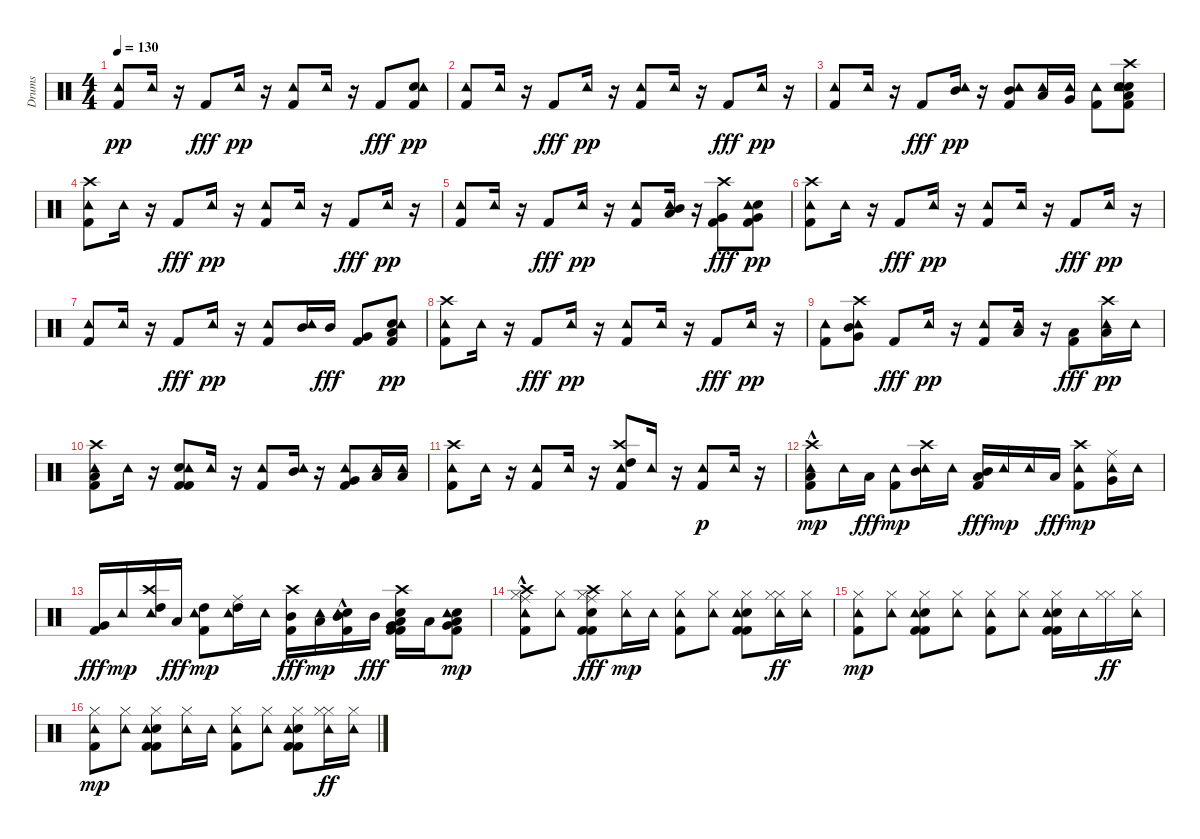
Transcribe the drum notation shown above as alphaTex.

\track ("Drums" "Drums") {instrument percussion}
\staff {score}
\articulation defaults
\ts (4 4)
\tempo 130
\clef neutral
\ks c
("Kick (hit) 2" "Tambourine (hit)").8{dy pp} "Tambourine (hit)".16 r.16 "Kick (hit) 2".8{dy fff} "Tambourine (hit)".16{dy pp} r.16 ("Kick (hit) 2" "Tambourine (hit)").8 "Tambourine (hit)".16 r.16 "Kick (hit) 2".8{dy fff} ("Snare (hit) 2" "Kick (hit) 2" "Tambourine (hit)").8{dy pp} |
("Kick (hit) 2" "Tambourine (hit)").8 "Tambourine (hit)".16 r.16 "Kick (hit) 2".8{dy fff} "Tambourine (hit)".16{dy pp} r.16 ("Kick (hit) 2" "Tambourine (hit)").8 "Tambourine (hit)".16 r.16 "Kick (hit) 2".8{dy fff} "Tambourine (hit)".16{dy pp} r.16 |
("Kick (hit) 2" "Tambourine (hit)").8 "Tambourine (hit)".16 r.16 "Kick (hit) 2".8{dy fff} ("Mid Tom (hit)" "Tambourine (hit)").16{dy pp} r.16 ("Kick (hit) 2" "Mid Tom (hit)" "Tambourine (hit)").8 ("Low Tom (hit)" "Tambourine (hit)").16 ("Very Low Tom (hit)" "Tambourine (hit)").16 ("Kick (hit) 2" "Tambourine (hit)").8 ("Snare (hit) 2" "Kick (hit) 2" "Low Floor Tom (hit)" "Electric Snare (hit)" "Crash high (hit)" "Tambourine (hit)").8 |
("Kick (hit) 2" "Crash high (hit)" "Tambourine (hit)").8 "Tambourine (hit)".16 r.16 "Kick (hit) 2".8{dy fff} "Tambourine (hit)".16{dy pp} r.16 ("Kick (hit) 2" "Tambourine (hit)").8 "Tambourine (hit)".16 r.16 "Kick (hit) 2".8{dy fff} "Tambourine (hit)".16{dy pp} r.16 |
("Kick (hit) 2" "Tambourine (hit)").8 "Tambourine (hit)".16 r.16 "Kick (hit) 2".8{dy fff} "Tambourine (hit)".16{dy pp} r.16 ("Kick (hit) 2" "Tambourine (hit)").8 ("Mid Tom (hit)" "Low Tom (hit)" "Tambourine (hit)").16 r.16 ("Kick (hit) 2" "Very Low Tom (hit)" "Crash high (hit)").8{dy fff} ("Snare (hit) 2" "Kick (hit) 2" "Very Low Tom (hit)" "Tambourine (hit)").8{dy pp} |
("Kick (hit) 2" "Crash high (hit)" "Tambourine (hit)").8 "Tambourine (hit)".16 r.16 "Kick (hit) 2".8{dy fff} "Tambourine (hit)".16{dy pp} r.16 ("Kick (hit) 2" "Tambourine (hit)").8 "Tambourine (hit)".16 r.16 "Kick (hit) 2".8{dy fff} "Tambourine (hit)".16{dy pp} r.16 |
("Kick (hit) 2" "Tambourine (hit)").8 "Tambourine (hit)".16 r.16 "Kick (hit) 2".8{dy fff} "Tambourine (hit)".16{dy pp} r.16 ("Kick (hit) 2" "Tambourine (hit)").8 ("Mid Tom (hit)" "Tambourine (hit)").16 "Mid Tom (hit)".16{dy fff} ("Kick (hit) 2" "Very Low Tom (hit)").8 ("Snare (hit) 2" "Kick (hit) 2" "Low Floor Tom (hit)" "Tambourine (hit)").8{dy pp} |
("Kick (hit) 2" "Crash high (hit)" "Tambourine (hit)").8 "Tambourine (hit)".16 r.16 "Kick (hit) 2".8{dy fff} "Tambourine (hit)".16{dy pp} r.16 ("Kick (hit) 2" "Tambourine (hit)").8 "Tambourine (hit)".16 r.16 "Kick (hit) 2".8{dy fff} "Tambourine (hit)".16{dy pp} r.16 |
("Kick (hit) 2" "Tambourine (hit)").8 ("Mid Tom (hit)" "Very Low Tom (hit)" "Crash high (hit)" "Tambourine (hit)").8 "Kick (hit) 2".8{dy fff} "Tambourine (hit)".16{dy pp} r.16 ("Kick (hit) 2" "Tambourine (hit)").8 ("Low Tom (hit)" "Tambourine (hit)").16 r.16 ("Kick (hit) 2" "Low Tom (hit)").8{dy fff} ("Low Floor Tom (hit)" "Crash high (hit)" "Tambourine (hit)").16{dy pp} "Tambourine (hit)".16 |
("Kick (hit) 2" "Low Floor Tom (hit)" "Crash high (hit)" "Tambourine (hit)").8 "Tambourine (hit)".16 r.16 ("Kick (hit) 2" "Snare (hit) 2" "Kick (hit) 2" "Tambourine (hit)").8 "Tambourine (hit)".16 r.16 ("Kick (hit) 2" "Tambourine (hit)").8 ("Mid Tom (hit)" "Tambourine (hit)").16 r.16 ("Kick (hit) 2" "Very Low Tom (hit)" "Tambourine (hit)").8 ("Low Tom (hit)" "Tambourine (hit)").16 ("Low Floor Tom (hit)" "Tambourine (hit)").16 |
("Kick (hit) 2" "Crash high (hit)" "Tambourine (hit)").8 "Tambourine (hit)".16 r.16 ("Kick (hit) 2" "Tambourine (hit)").8 "Tambourine (hit)".16 r.16 ("Kick (hit) 2" "High Tom (hit)" "Crash high (hit)" "Tambourine (hit)").8 "Tambourine (hit)".16 r.16 ("Kick (hit) 2" "Tambourine (hit)").8{dy p} "Tambourine (hit)".16 r.16 |
("Kick (hit) 2" "Low Floor Tom (hit)" "Crash high (hit)"{hac} "Tambourine (hit)").8{dy mp} "Tambourine (hit)".16 "Low Floor Tom (hit)".16{dy fff} ("Kick (hit) 2" "Tambourine (hit)").8{dy mp} ("Mid Tom (hit)" "Crash high (hit)" "Tambourine (hit)").16 "Tambourine (hit)".16 ("Mid Tom (hit)" "Low Tom (hit)" "Kick (hit) 2").16{dy fff} "Tambourine (hit)".16{dy mp} "Tambourine (hit)".16 "Low Tom (hit)".16{dy fff} ("Kick (hit) 2" "Crash high (hit)" "Tambourine (hit)").8{dy mp} ("Very Low Tom (hit)" "Ride (middle)" "Tambourine (hit)").16 "Tambourine (hit)".16 |
("Kick (hit) 2" "Very Low Tom (hit)").16{dy fff} "Tambourine (hit)".16{dy mp} ("High Tom (hit)" "Crash high (hit)" "Tambourine (hit)").16 "Low Tom (hit)".16{dy fff} ("Kick (hit) 2" "High Tom (hit)" "Tambourine (hit)").8{dy mp} ("High Tom (hit)" "Ride (middle)" "Tambourine (hit)").16 "Tambourine (hit)".16 ("Kick (hit) 2" "Mid Tom (hit)" "Crash high (hit)").16{dy fff} ("Low Tom (hit)" "Tambourine (hit)").16{dy mp} ("Snare (hit) 2" "Kick (hit) 2" "Mid Tom (hit)" "Tambourine (hit)"{hac}).16 "Mid Tom (hit)".16{dy fff} ("Kick (hit) 2" "Snare (hit) 2" "Kick (hit) 2" "Very Low Tom (hit)" "Low Tom (hit)" "Crash high (hit)").16 "Low Tom (hit)".16 ("Snare (hit) 2" "Kick (hit) 2" "Low Floor Tom (hit)" "Very Low Tom (hit)" "Tambourine (hit)").8{dy mp} |
("Kick (hit) 2" "Hi-Hat (closed)" "Ride (middle)"{hac} "Crash high (hit)"{hac} "Tambourine (hit)").8 ("Hi-Hat (closed)" "Tambourine (hit)").8 ("Kick (hit) 2" "Snare (hit) 2" "Kick (hit) 2" "Hi-Hat (closed)" "Ride (middle)" "Crash high (hit)").8{dy fff} ("Hi-Hat (closed)" "Tambourine (hit)").16{dy mp} "Tambourine (hit)".16 ("Kick (hit) 2" "Hi-Hat (closed)" "Tambourine (hit)").8 ("Hi-Hat (closed)" "Tambourine (hit)").8 ("Kick (hit) 2" "Snare (hit) 2" "Kick (hit) 2" "Hi-Hat (closed)" "Tambourine (hit)").8 ("Hi-Hat (closed)" "Tambourine (hit)" "Hi-Hat (closed)").16{dy ff} ("Tambourine (hit)" "Hi-Hat (closed)").16 |
("Kick (hit) 2" "Hi-Hat (closed)" "Tambourine (hit)").8{dy mp} ("Hi-Hat (closed)" "Tambourine (hit)").8 ("Kick (hit) 2" "Snare (hit) 2" "Kick (hit) 2" "Hi-Hat (closed)" "Tambourine (hit)").8 ("Hi-Hat (closed)" "Tambourine (hit)").8 ("Kick (hit) 2" "Hi-Hat (closed)" "Tambourine (hit)").8 ("Hi-Hat (closed)" "Tambourine (hit)").8 ("Kick (hit) 2" "Snare (hit) 2" "Kick (hit) 2" "Hi-Hat (closed)" "Tambourine (hit)").16 "Tambourine (hit)".16 ("Hi-Hat (closed)" "Hi-Hat (closed)").16{dy ff} ("Tambourine (hit)" "Hi-Hat (closed)").16 |
("Kick (hit) 2" "Hi-Hat (closed)" "Tambourine (hit)").8{dy mp} ("Hi-Hat (closed)" "Tambourine (hit)").8 ("Kick (hit) 2" "Snare (hit) 2" "Kick (hit) 2" "Hi-Hat (closed)" "Tambourine (hit)").8 ("Hi-Hat (closed)" "Tambourine (hit)").16 "Tambourine (hit)".16 ("Kick (hit) 2" "Hi-Hat (closed)" "Tambourine (hit)").8 ("Hi-Hat (closed)" "Tambourine (hit)").8 ("Kick (hit) 2" "Snare (hit) 2" "Kick (hit) 2" "Hi-Hat (closed)" "Tambourine (hit)").8 ("Hi-Hat (closed)" "Tambourine (hit)" "Hi-Hat (closed)").16{dy ff} ("Tambourine (hit)" "Hi-Hat (closed)").16
